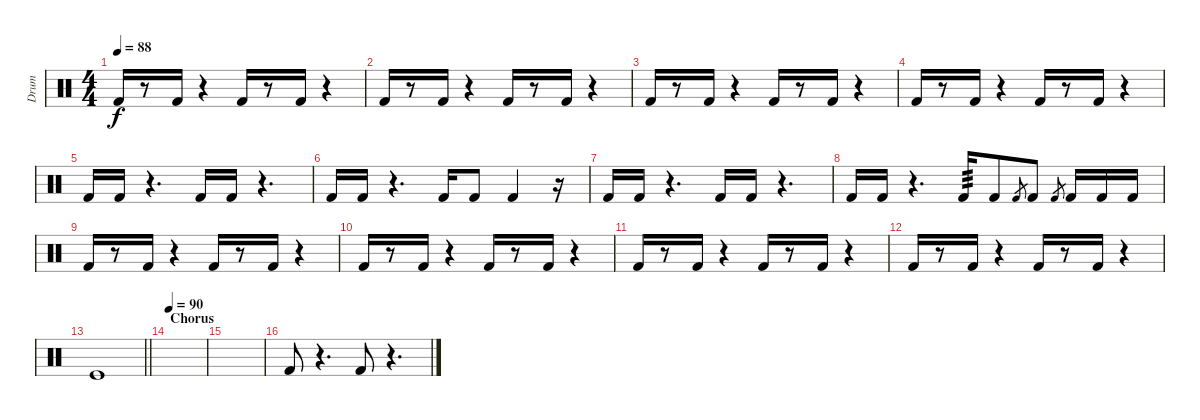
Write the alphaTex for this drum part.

\track ("Drum" "Drum") {instrument percussion}
\staff {score}
\articulation defaults
\ts (4 4)
\tempo 88
\clef neutral
\ks c "Kick (hit) 2".16{dy f}
r.8 "Kick (hit) 2".16 r.4 "Kick (hit) 2".16 r.8 "Kick (hit) 2".16 r.4 |
"Kick (hit) 2".16 r.8 "Kick (hit) 2".16 r.4 "Kick (hit) 2".16 r.8 "Kick (hit) 2".16 r.4 |
"Kick (hit) 2".16 r.8 "Kick (hit) 2".16 r.4 "Kick (hit) 2".16 r.8 "Kick (hit) 2".16 r.4 |
"Kick (hit) 2".16 r.8 "Kick (hit) 2".16 r.4 "Kick (hit) 2".16 r.8 "Kick (hit) 2".16 r.4 |
"Kick (hit) 2".16 "Kick (hit) 2".16 r.4{d} "Kick (hit) 2".16 "Kick (hit) 2".16 r.4{d} |
"Kick (hit) 2".16 "Kick (hit) 2".16 r.4{d} "Kick (hit) 2".16 "Kick (hit) 2".8 "Kick (hit) 2".4 r.16 |
"Kick (hit) 2".16 "Kick (hit) 2".16 r.4{d} "Kick (hit) 2".16 "Kick (hit) 2".16 r.4{d} |
"Kick (hit) 2".16 "Kick (hit) 2".16 r.4{d} "Kick (hit) 2".16{tp 3} "Kick (hit) 2".8 "Kick (hit) 2".8{gr} "Kick (hit) 2".8 "Kick (hit) 2".8{gr} "Kick (hit) 2".16 "Kick (hit) 2".16 "Kick (hit) 2".16 |
"Kick (hit) 2".16 r.8 "Kick (hit) 2".16 r.4 "Kick (hit) 2".16 r.8 "Kick (hit) 2".16 r.4 |
"Kick (hit) 2".16 r.8 "Kick (hit) 2".16 r.4 "Kick (hit) 2".16 r.8 "Kick (hit) 2".16 r.4 |
"Kick (hit) 2".16 r.8 "Kick (hit) 2".16 r.4 "Kick (hit) 2".16 r.8 "Kick (hit) 2".16 r.4 |
"Kick (hit) 2".16 r.8 "Kick (hit) 2".16 r.4 "Kick (hit) 2".16 r.8 "Kick (hit) 2".16 r.4 |
\barLineRight lightlight "Kick (hit)".1
|
\section ("" "Chorus")
\tempo 90
|
|
"Kick (hit) 2".8 r.4{d} "Kick (hit) 2".8 r.4{d}
